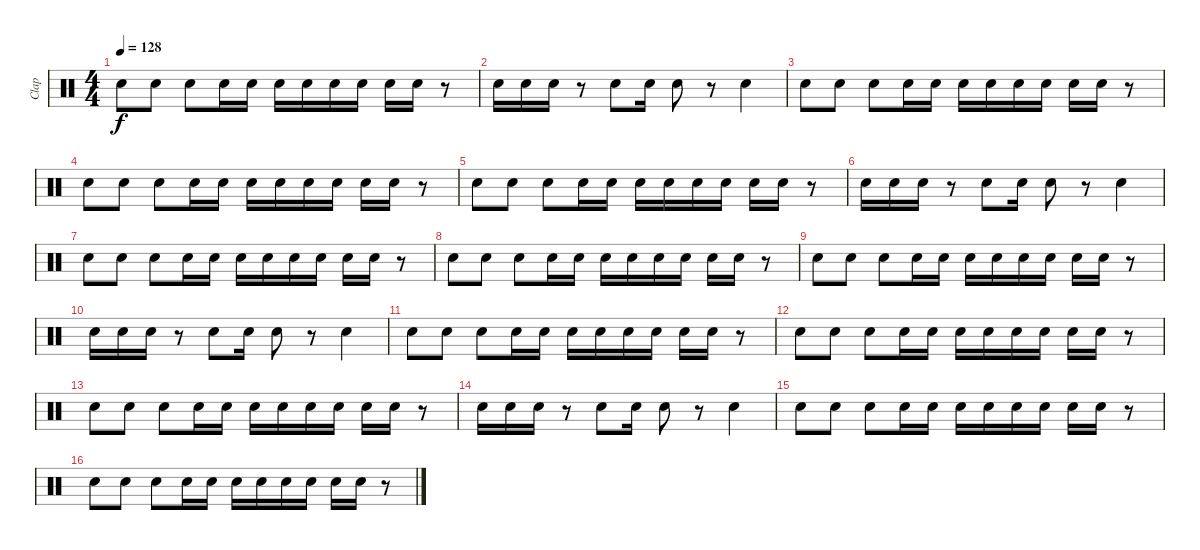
\track ("Clap" "Clap") {instrument percussion}
\staff {score}
\articulation defaults
\ts (4 4)
\tempo 128
\clef neutral
\ks c "Hand Clap (hit)".8{dy f} "Hand Clap (hit)".8 "Hand Clap (hit)".8 "Hand Clap (hit)".16 "Hand Clap (hit)".16 "Hand Clap (hit)".16 "Hand Clap (hit)".16 "Hand Clap (hit)".16 "Hand Clap (hit)".16 "Hand Clap (hit)".16 "Hand Clap (hit)".16
r.8 |
"Hand Clap (hit)".16 "Hand Clap (hit)".16 "Hand Clap (hit)".16 r.8 "Hand Clap (hit)".8 "Hand Clap (hit)".16 "Hand Clap (hit)".8 r.8 "Hand Clap (hit)".4 |
"Hand Clap (hit)".8 "Hand Clap (hit)".8 "Hand Clap (hit)".8 "Hand Clap (hit)".16 "Hand Clap (hit)".16 "Hand Clap (hit)".16 "Hand Clap (hit)".16 "Hand Clap (hit)".16 "Hand Clap (hit)".16 "Hand Clap (hit)".16 "Hand Clap (hit)".16 r.8 |
"Hand Clap (hit)".8 "Hand Clap (hit)".8 "Hand Clap (hit)".8 "Hand Clap (hit)".16 "Hand Clap (hit)".16 "Hand Clap (hit)".16 "Hand Clap (hit)".16 "Hand Clap (hit)".16 "Hand Clap (hit)".16 "Hand Clap (hit)".16 "Hand Clap (hit)".16 r.8 |
"Hand Clap (hit)".8 "Hand Clap (hit)".8 "Hand Clap (hit)".8 "Hand Clap (hit)".16 "Hand Clap (hit)".16 "Hand Clap (hit)".16 "Hand Clap (hit)".16 "Hand Clap (hit)".16 "Hand Clap (hit)".16 "Hand Clap (hit)".16 "Hand Clap (hit)".16 r.8 |
"Hand Clap (hit)".16 "Hand Clap (hit)".16 "Hand Clap (hit)".16 r.8 "Hand Clap (hit)".8 "Hand Clap (hit)".16 "Hand Clap (hit)".8 r.8 "Hand Clap (hit)".4 |
"Hand Clap (hit)".8 "Hand Clap (hit)".8 "Hand Clap (hit)".8 "Hand Clap (hit)".16 "Hand Clap (hit)".16 "Hand Clap (hit)".16 "Hand Clap (hit)".16 "Hand Clap (hit)".16 "Hand Clap (hit)".16 "Hand Clap (hit)".16 "Hand Clap (hit)".16 r.8 |
"Hand Clap (hit)".8 "Hand Clap (hit)".8 "Hand Clap (hit)".8 "Hand Clap (hit)".16 "Hand Clap (hit)".16 "Hand Clap (hit)".16 "Hand Clap (hit)".16 "Hand Clap (hit)".16 "Hand Clap (hit)".16 "Hand Clap (hit)".16 "Hand Clap (hit)".16 r.8 |
"Hand Clap (hit)".8 "Hand Clap (hit)".8 "Hand Clap (hit)".8 "Hand Clap (hit)".16 "Hand Clap (hit)".16 "Hand Clap (hit)".16 "Hand Clap (hit)".16 "Hand Clap (hit)".16 "Hand Clap (hit)".16 "Hand Clap (hit)".16 "Hand Clap (hit)".16 r.8 |
"Hand Clap (hit)".16 "Hand Clap (hit)".16 "Hand Clap (hit)".16 r.8 "Hand Clap (hit)".8 "Hand Clap (hit)".16 "Hand Clap (hit)".8 r.8 "Hand Clap (hit)".4 |
"Hand Clap (hit)".8 "Hand Clap (hit)".8 "Hand Clap (hit)".8 "Hand Clap (hit)".16 "Hand Clap (hit)".16 "Hand Clap (hit)".16 "Hand Clap (hit)".16 "Hand Clap (hit)".16 "Hand Clap (hit)".16 "Hand Clap (hit)".16 "Hand Clap (hit)".16 r.8 |
"Hand Clap (hit)".8 "Hand Clap (hit)".8 "Hand Clap (hit)".8 "Hand Clap (hit)".16 "Hand Clap (hit)".16 "Hand Clap (hit)".16 "Hand Clap (hit)".16 "Hand Clap (hit)".16 "Hand Clap (hit)".16 "Hand Clap (hit)".16 "Hand Clap (hit)".16 r.8 |
"Hand Clap (hit)".8 "Hand Clap (hit)".8 "Hand Clap (hit)".8 "Hand Clap (hit)".16 "Hand Clap (hit)".16 "Hand Clap (hit)".16 "Hand Clap (hit)".16 "Hand Clap (hit)".16 "Hand Clap (hit)".16 "Hand Clap (hit)".16 "Hand Clap (hit)".16 r.8 |
"Hand Clap (hit)".16 "Hand Clap (hit)".16 "Hand Clap (hit)".16 r.8 "Hand Clap (hit)".8 "Hand Clap (hit)".16 "Hand Clap (hit)".8 r.8 "Hand Clap (hit)".4 |
"Hand Clap (hit)".8 "Hand Clap (hit)".8 "Hand Clap (hit)".8 "Hand Clap (hit)".16 "Hand Clap (hit)".16 "Hand Clap (hit)".16 "Hand Clap (hit)".16 "Hand Clap (hit)".16 "Hand Clap (hit)".16 "Hand Clap (hit)".16 "Hand Clap (hit)".16 r.8 |
"Hand Clap (hit)".8 "Hand Clap (hit)".8 "Hand Clap (hit)".8 "Hand Clap (hit)".16 "Hand Clap (hit)".16 "Hand Clap (hit)".16 "Hand Clap (hit)".16 "Hand Clap (hit)".16 "Hand Clap (hit)".16 "Hand Clap (hit)".16 "Hand Clap (hit)".16 r.8
